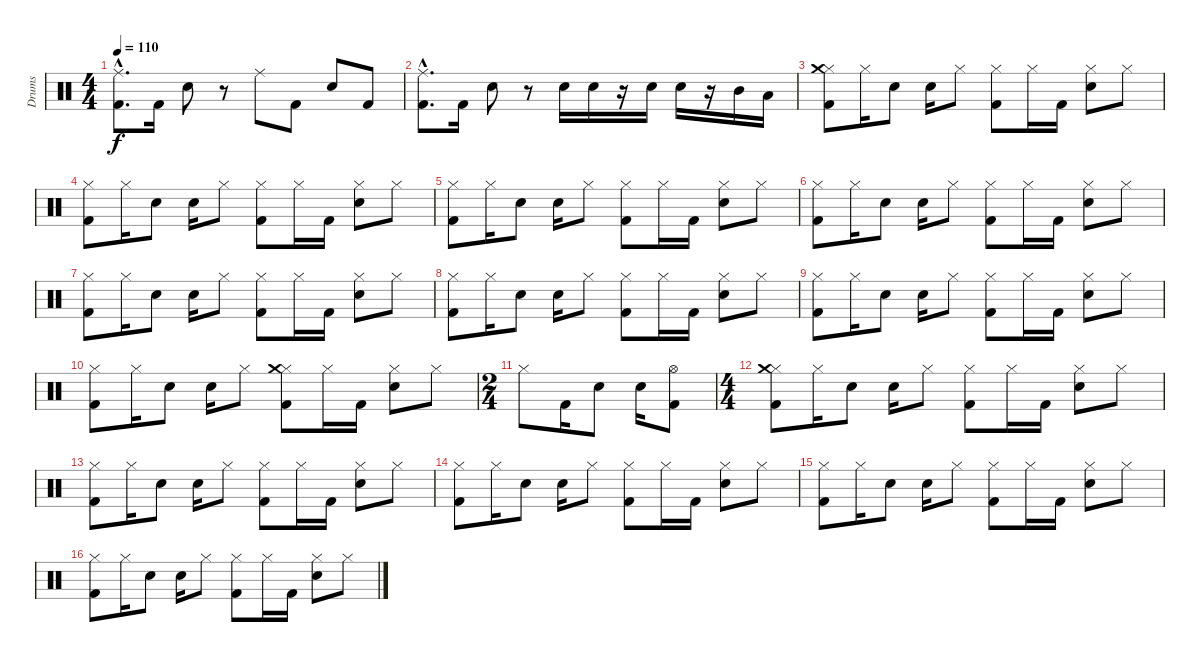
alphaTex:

\track ("Drums" "Drums") {instrument percussion}
\staff {score}
\articulation defaults
\ts (4 4)
\tempo 110
\clef neutral
\ks c
("Ride (middle)"{hac} "Kick (hit) 2"{hac}).8{d dy f} "Kick (hit) 2".16 "Electric Snare (hit)".8 r.8 "Ride (middle)".8 "Kick (hit) 2".8 "Electric Snare (hit)".8 "Kick (hit) 2".8 |
("Ride (middle)"{hac} "Kick (hit) 2"{hac}).8{d} "Kick (hit) 2".16 "Electric Snare (hit)".8 r.8 "Electric Snare (hit)".16 "Electric Snare (hit)".16 r.16 "Electric Snare (hit)".16 "Electric Snare (hit)".16 r.16 "Mid Tom (hit)".16 "Low Tom (hit)".16 |
("Hi-Hat (closed)" "Kick (hit) 2" "Crash medium (hit)").8 "Hi-Hat (closed)".16 "Electric Snare (hit)".8 "Electric Snare (hit)".16 "Hi-Hat (closed)".8 ("Hi-Hat (closed)" "Kick (hit) 2").8 "Hi-Hat (closed)".16 "Kick (hit) 2".16 ("Hi-Hat (closed)" "Electric Snare (hit)").8 "Hi-Hat (closed)".8 |
("Hi-Hat (closed)" "Kick (hit) 2").8 "Hi-Hat (closed)".16 "Electric Snare (hit)".8 "Electric Snare (hit)".16 "Hi-Hat (closed)".8 ("Hi-Hat (closed)" "Kick (hit) 2").8 "Hi-Hat (closed)".16 "Kick (hit) 2".16 ("Hi-Hat (closed)" "Electric Snare (hit)").8 "Hi-Hat (closed)".8 |
("Hi-Hat (closed)" "Kick (hit) 2").8 "Hi-Hat (closed)".16 "Electric Snare (hit)".8 "Electric Snare (hit)".16 "Hi-Hat (closed)".8 ("Hi-Hat (closed)" "Kick (hit) 2").8 "Hi-Hat (closed)".16 "Kick (hit) 2".16 ("Hi-Hat (closed)" "Electric Snare (hit)").8 "Hi-Hat (closed)".8 |
("Hi-Hat (closed)" "Kick (hit) 2").8 "Hi-Hat (closed)".16 "Electric Snare (hit)".8 "Electric Snare (hit)".16 "Hi-Hat (closed)".8 ("Hi-Hat (closed)" "Kick (hit) 2").8 "Hi-Hat (closed)".16 "Kick (hit) 2".16 ("Hi-Hat (closed)" "Electric Snare (hit)").8 "Hi-Hat (closed)".8 |
("Hi-Hat (closed)" "Kick (hit) 2").8 "Hi-Hat (closed)".16 "Electric Snare (hit)".8 "Electric Snare (hit)".16 "Hi-Hat (closed)".8 ("Hi-Hat (closed)" "Kick (hit) 2").8 "Hi-Hat (closed)".16 "Kick (hit) 2".16 ("Hi-Hat (closed)" "Electric Snare (hit)").8 "Hi-Hat (closed)".8 |
("Hi-Hat (closed)" "Kick (hit) 2").8 "Hi-Hat (closed)".16 "Electric Snare (hit)".8 "Electric Snare (hit)".16 "Hi-Hat (closed)".8 ("Hi-Hat (closed)" "Kick (hit) 2").8 "Hi-Hat (closed)".16 "Kick (hit) 2".16 ("Hi-Hat (closed)" "Electric Snare (hit)").8 "Hi-Hat (closed)".8 |
("Hi-Hat (closed)" "Kick (hit) 2").8 "Hi-Hat (closed)".16 "Electric Snare (hit)".8 "Electric Snare (hit)".16 "Hi-Hat (closed)".8 ("Hi-Hat (closed)" "Kick (hit) 2").8 "Hi-Hat (closed)".16 "Kick (hit) 2".16 ("Hi-Hat (closed)" "Electric Snare (hit)").8 "Hi-Hat (closed)".8 |
("Hi-Hat (closed)" "Kick (hit) 2").8 "Hi-Hat (closed)".16 "Electric Snare (hit)".8 "Electric Snare (hit)".16 "Hi-Hat (closed)".8 ("Hi-Hat (closed)" "Kick (hit) 2" "Crash medium (hit)").8 "Hi-Hat (closed)".16 "Kick (hit) 2".16 ("Hi-Hat (closed)" "Electric Snare (hit)").8 "Hi-Hat (closed)".8 |
\ts (2 4)
"Hi-Hat (closed)".8 "Kick (hit) 2".16 "Electric Snare (hit)".8 "Electric Snare (hit)".16 ("Hi-Hat (open)" "Kick (hit) 2").8 |
\ts (4 4)
("Hi-Hat (closed)" "Kick (hit) 2" "Crash medium (hit)").8 "Hi-Hat (closed)".16 "Electric Snare (hit)".8 "Electric Snare (hit)".16 "Hi-Hat (closed)".8 ("Hi-Hat (closed)" "Kick (hit) 2").8 "Hi-Hat (closed)".16 "Kick (hit) 2".16 ("Hi-Hat (closed)" "Electric Snare (hit)").8 "Hi-Hat (closed)".8 |
("Hi-Hat (closed)" "Kick (hit) 2").8 "Hi-Hat (closed)".16 "Electric Snare (hit)".8 "Electric Snare (hit)".16 "Hi-Hat (closed)".8 ("Hi-Hat (closed)" "Kick (hit) 2").8 "Hi-Hat (closed)".16 "Kick (hit) 2".16 ("Hi-Hat (closed)" "Electric Snare (hit)").8 "Hi-Hat (closed)".8 |
("Hi-Hat (closed)" "Kick (hit) 2").8 "Hi-Hat (closed)".16 "Electric Snare (hit)".8 "Electric Snare (hit)".16 "Hi-Hat (closed)".8 ("Hi-Hat (closed)" "Kick (hit) 2").8 "Hi-Hat (closed)".16 "Kick (hit) 2".16 ("Hi-Hat (closed)" "Electric Snare (hit)").8 "Hi-Hat (closed)".8 |
("Hi-Hat (closed)" "Kick (hit) 2").8 "Hi-Hat (closed)".16 "Electric Snare (hit)".8 "Electric Snare (hit)".16 "Hi-Hat (closed)".8 ("Hi-Hat (closed)" "Kick (hit) 2").8 "Hi-Hat (closed)".16 "Kick (hit) 2".16 ("Hi-Hat (closed)" "Electric Snare (hit)").8 "Hi-Hat (closed)".8 |
("Hi-Hat (closed)" "Kick (hit) 2").8 "Hi-Hat (closed)".16 "Electric Snare (hit)".8 "Electric Snare (hit)".16 "Hi-Hat (closed)".8 ("Hi-Hat (closed)" "Kick (hit) 2").8 "Hi-Hat (closed)".16 "Kick (hit) 2".16 ("Hi-Hat (closed)" "Electric Snare (hit)").8 "Hi-Hat (closed)".8
